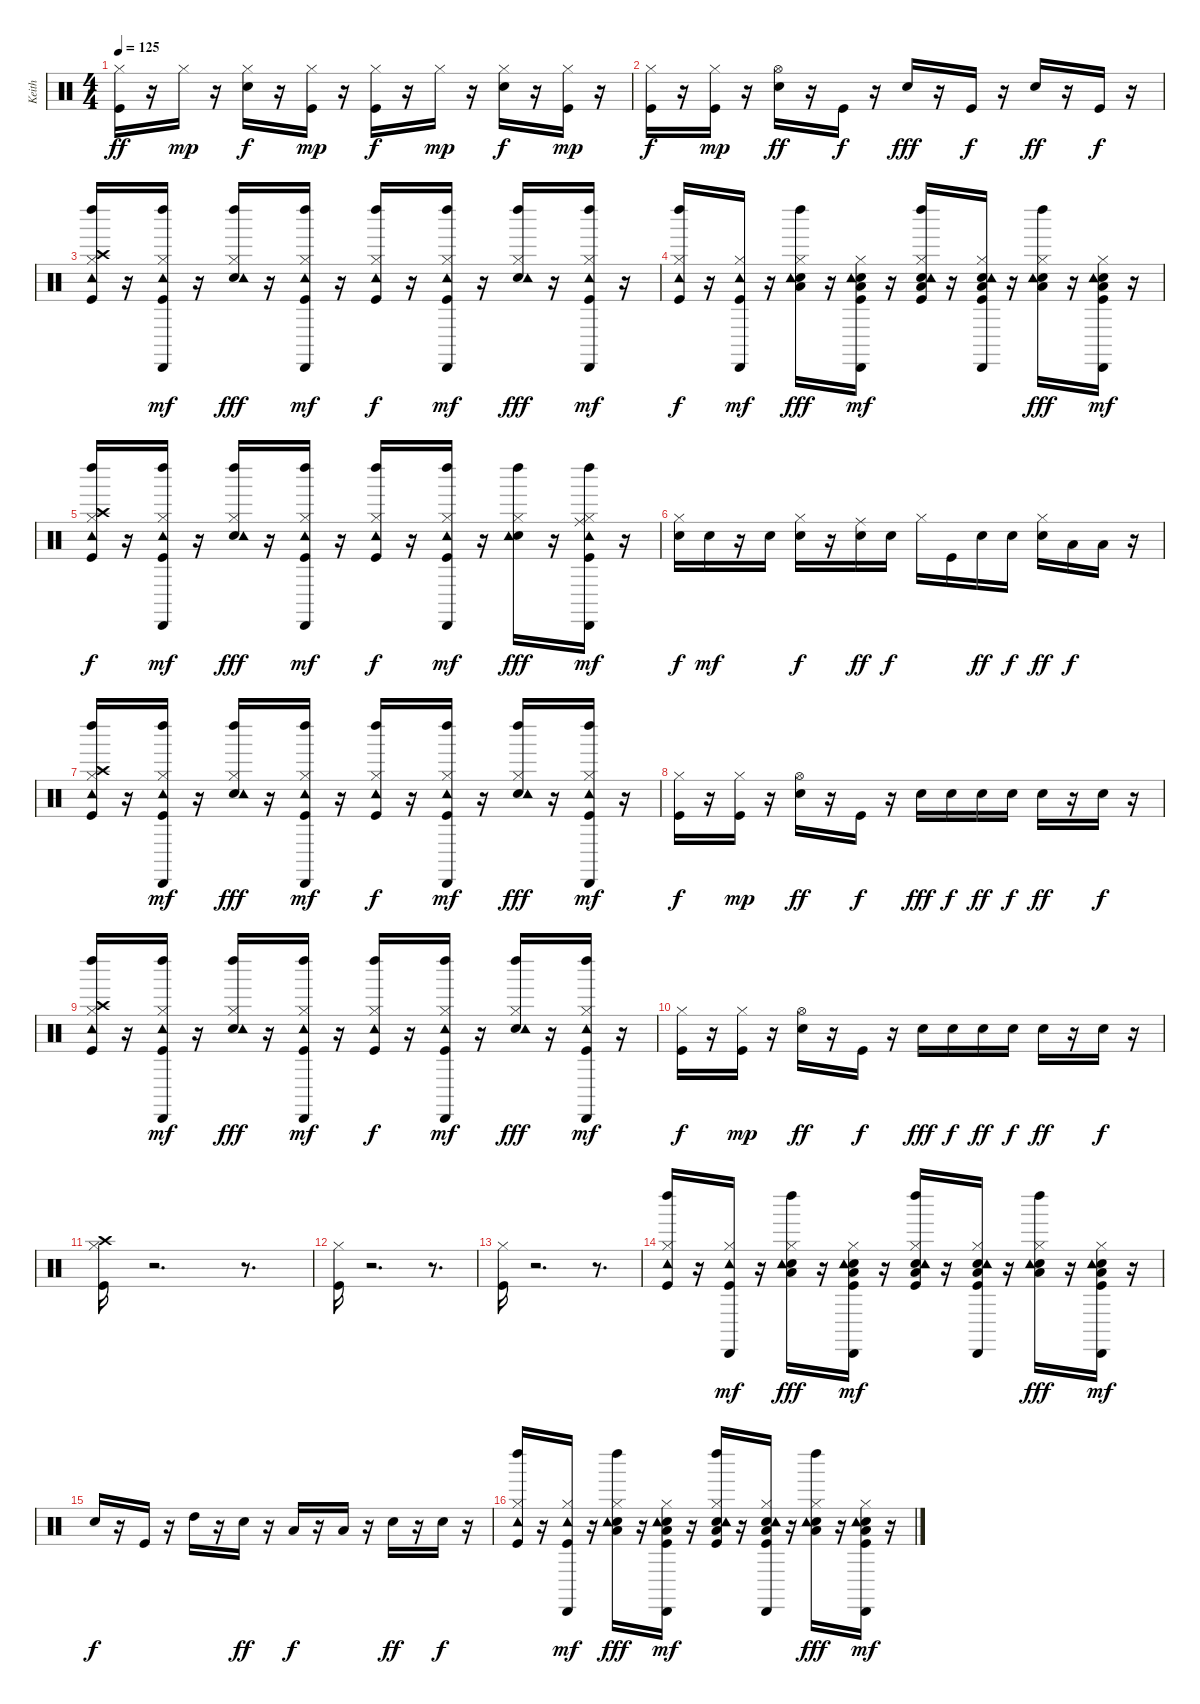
\track ("Keith" "Keith") {instrument percussion}
\staff {score}
\articulation defaults
\ts (4 4)
\tempo 125
\clef neutral
\ks c
("Kick (hit)" "Hi-Hat (closed)").16{dy ff} r.16 "Hi-Hat (closed)".16{dy mp} r.16 ("Snare (hit) 2" "Hi-Hat (closed)").16{dy f} r.16 ("Kick (hit)" "Hi-Hat (closed)").16{dy mp} r.16 ("Kick (hit)" "Hi-Hat (closed)").16{dy f} r.16 "Hi-Hat (closed)".16{dy mp} r.16 ("Snare (hit) 2" "Hi-Hat (closed)").16{dy f} r.16 ("Kick (hit)" "Hi-Hat (closed)").16{dy mp} r.16 |
("Kick (hit)" "Hi-Hat (closed)").16{dy f} r.16 ("Kick (hit)" "Hi-Hat (closed)").16{dy mp} r.16 ("Snare (hit) 2" "Hi-Hat (open)").16{dy ff} r.16 "Kick (hit)".16{dy f} r.16 "Snare (hit) 2".16{dy fff} r.16 "Kick (hit)".16{dy f} r.16 "Snare (hit) 2".16{dy ff} r.16 "Kick (hit)".16{dy f} r.16 |
("Kick (hit)" "Hi-Hat (closed)" "Crash high (hit)" "Tambourine (hit)" "Left Maraca (hit)").16 r.16 ("Kick (hit)" "Hi-Hat (closed)" "Tambourine (hit)" "Left Maraca (hit)" "Cabasa (hit)").16{dy mf} r.16 ("Snare (hit) 2" "Hi-Hat (closed)" "Tambourine (hit)" "Left Maraca (hit)").16{dy fff} r.16 ("Kick (hit)" "Hi-Hat (closed)" "Tambourine (hit)" "Left Maraca (hit)" "Cabasa (hit)").16{dy mf} r.16 ("Kick (hit)" "Hi-Hat (closed)" "Tambourine (hit)" "Left Maraca (hit)").16{dy f} r.16 ("Kick (hit)" "Hi-Hat (closed)" "Tambourine (hit)" "Left Maraca (hit)" "Cabasa (hit)").16{dy mf} r.16 ("Snare (hit) 2" "Hi-Hat (closed)" "Tambourine (hit)" "Left Maraca (hit)").16{dy fff} r.16 ("Kick (hit)" "Hi-Hat (closed)" "Tambourine (hit)" "Left Maraca (hit)" "Cabasa (hit)").16{dy mf} r.16 |
("Kick (hit)" "Hi-Hat (closed)" "Tambourine (hit)" "Left Maraca (hit)").16{dy f} r.16 ("Kick (hit)" "Hi-Hat (closed)" "Tambourine (hit)" "Cabasa (hit)").16{dy mf} r.16 ("Snare (hit) 2" "Hi-Hat (closed)" "Low Floor Tom (hit)" "Tambourine (hit)" "Left Maraca (hit)").16{dy fff} r.16 ("Kick (hit)" "Snare (hit) 2" "Hi-Hat (closed)" "Low Floor Tom (hit)" "Tambourine (hit)" "Cabasa (hit)").16{dy mf} r.16 ("Kick (hit)" "Snare (hit) 2" "Hi-Hat (closed)" "Low Floor Tom (hit)" "Tambourine (hit)" "Left Maraca (hit)").16 r.16 ("Kick (hit)" "Snare (hit) 2" "Hi-Hat (closed)" "Low Floor Tom (hit)" "Tambourine (hit)" "Cabasa (hit)").16 r.16 ("Snare (hit) 2" "Hi-Hat (closed)" "Low Floor Tom (hit)" "Tambourine (hit)" "Left Maraca (hit)").16{dy fff} r.16 ("Kick (hit)" "Snare (hit) 2" "Hi-Hat (closed)" "Low Floor Tom (hit)" "Tambourine (hit)" "Cabasa (hit)").16{dy mf} r.16 |
("Kick (hit)" "Hi-Hat (closed)" "Crash high (hit)" "Tambourine (hit)" "Left Maraca (hit)").16{dy f} r.16 ("Kick (hit)" "Hi-Hat (closed)" "Tambourine (hit)" "Left Maraca (hit)" "Cabasa (hit)").16{dy mf} r.16 ("Snare (hit) 2" "Hi-Hat (closed)" "Tambourine (hit)" "Left Maraca (hit)").16{dy fff} r.16 ("Kick (hit)" "Hi-Hat (closed)" "Tambourine (hit)" "Left Maraca (hit)" "Cabasa (hit)").16{dy mf} r.16 ("Kick (hit)" "Hi-Hat (closed)" "Tambourine (hit)" "Left Maraca (hit)").16{dy f} r.16 ("Kick (hit)" "Hi-Hat (closed)" "Tambourine (hit)" "Left Maraca (hit)" "Cabasa (hit)").16{dy mf} r.16 ("Snare (hit) 2" "Hi-Hat (closed)" "Tambourine (hit)" "Left Maraca (hit)").16{dy fff} r.16 ("Kick (hit)" "Hi-Hat (closed)" "Ride (middle)" "Tambourine (hit)" "Left Maraca (hit)" "Cabasa (hit)").16{dy mf} r.16 |
("Snare (hit) 2" "Hi-Hat (closed)").16{dy f} "Snare (hit) 2".16{dy mf} r.16 "Snare (hit) 2".16 ("Snare (hit) 2" "Hi-Hat (closed)").16{dy f} r.16 ("Snare (hit) 2" "Ride (middle)").16{dy ff} "Snare (hit) 2".16{dy f} "Hi-Hat (closed)".16 "Kick (hit)".16 "Snare (hit) 2".16{dy ff} "Snare (hit) 2".16{dy f} ("Snare (hit) 2" "Hi-Hat (closed)").16{dy ff} "Low Tom (hit)".16{dy f} "Low Floor Tom (hit)".16 r.16 |
("Kick (hit)" "Hi-Hat (closed)" "Crash high (hit)" "Tambourine (hit)" "Left Maraca (hit)").16 r.16 ("Kick (hit)" "Hi-Hat (closed)" "Tambourine (hit)" "Left Maraca (hit)" "Cabasa (hit)").16{dy mf} r.16 ("Snare (hit) 2" "Hi-Hat (closed)" "Tambourine (hit)" "Left Maraca (hit)").16{dy fff} r.16 ("Kick (hit)" "Hi-Hat (closed)" "Tambourine (hit)" "Left Maraca (hit)" "Cabasa (hit)").16{dy mf} r.16 ("Kick (hit)" "Hi-Hat (closed)" "Tambourine (hit)" "Left Maraca (hit)").16{dy f} r.16 ("Kick (hit)" "Hi-Hat (closed)" "Tambourine (hit)" "Left Maraca (hit)" "Cabasa (hit)").16{dy mf} r.16 ("Snare (hit) 2" "Hi-Hat (closed)" "Tambourine (hit)" "Left Maraca (hit)").16{dy fff} r.16 ("Kick (hit)" "Hi-Hat (closed)" "Tambourine (hit)" "Left Maraca (hit)" "Cabasa (hit)").16{dy mf} r.16 |
("Kick (hit)" "Hi-Hat (closed)").16{dy f} r.16 ("Kick (hit)" "Hi-Hat (closed)").16{dy mp} r.16 ("Snare (hit) 2" "Hi-Hat (open)").16{dy ff} r.16 "Kick (hit)".16{dy f} r.16 "Snare (hit) 2".16{dy fff} "Snare (hit) 2".16{dy f} "Snare (hit) 2".16{dy ff} "Snare (hit) 2".16{dy f} "Snare (hit) 2".16{dy ff} r.16 "Snare (hit) 2".16{dy f} r.16 |
("Kick (hit)" "Hi-Hat (closed)" "Crash high (hit)" "Tambourine (hit)" "Left Maraca (hit)").16 r.16 ("Kick (hit)" "Hi-Hat (closed)" "Tambourine (hit)" "Left Maraca (hit)" "Cabasa (hit)").16{dy mf} r.16 ("Snare (hit) 2" "Hi-Hat (closed)" "Tambourine (hit)" "Left Maraca (hit)").16{dy fff} r.16 ("Kick (hit)" "Hi-Hat (closed)" "Tambourine (hit)" "Left Maraca (hit)" "Cabasa (hit)").16{dy mf} r.16 ("Kick (hit)" "Hi-Hat (closed)" "Tambourine (hit)" "Left Maraca (hit)").16{dy f} r.16 ("Kick (hit)" "Hi-Hat (closed)" "Tambourine (hit)" "Left Maraca (hit)" "Cabasa (hit)").16{dy mf} r.16 ("Snare (hit) 2" "Hi-Hat (closed)" "Tambourine (hit)" "Left Maraca (hit)").16{dy fff} r.16 ("Kick (hit)" "Hi-Hat (closed)" "Tambourine (hit)" "Left Maraca (hit)" "Cabasa (hit)").16{dy mf} r.16 |
("Kick (hit)" "Hi-Hat (closed)").16{dy f} r.16 ("Kick (hit)" "Hi-Hat (closed)").16{dy mp} r.16 ("Snare (hit) 2" "Hi-Hat (open)").16{dy ff} r.16 "Kick (hit)".16{dy f} r.16 "Snare (hit) 2".16{dy fff} "Snare (hit) 2".16{dy f} "Snare (hit) 2".16{dy ff} "Snare (hit) 2".16{dy f} "Snare (hit) 2".16{dy ff} r.16 "Snare (hit) 2".16{dy f} r.16 |
("Kick (hit)" "Hi-Hat (closed)" "Crash high (hit)").16 r.2{d} r.8{d} |
("Kick (hit)" "Hi-Hat (closed)").16 r.2{d} r.8{d} |
("Kick (hit)" "Hi-Hat (closed)").16 r.2{d} r.8{d} |
("Kick (hit)" "Hi-Hat (closed)" "Tambourine (hit)" "Left Maraca (hit)").16 r.16 ("Kick (hit)" "Hi-Hat (closed)" "Tambourine (hit)" "Cabasa (hit)").16{dy mf} r.16 ("Snare (hit) 2" "Hi-Hat (closed)" "Low Floor Tom (hit)" "Tambourine (hit)" "Left Maraca (hit)").16{dy fff} r.16 ("Kick (hit)" "Snare (hit) 2" "Hi-Hat (closed)" "Low Floor Tom (hit)" "Tambourine (hit)" "Cabasa (hit)").16{dy mf} r.16 ("Kick (hit)" "Snare (hit) 2" "Hi-Hat (closed)" "Low Floor Tom (hit)" "Tambourine (hit)" "Left Maraca (hit)").16 r.16 ("Kick (hit)" "Snare (hit) 2" "Hi-Hat (closed)" "Low Floor Tom (hit)" "Tambourine (hit)" "Cabasa (hit)").16 r.16 ("Snare (hit) 2" "Hi-Hat (closed)" "Low Floor Tom (hit)" "Tambourine (hit)" "Left Maraca (hit)").16{dy fff} r.16 ("Kick (hit)" "Snare (hit) 2" "Hi-Hat (closed)" "Low Floor Tom (hit)" "Tambourine (hit)" "Cabasa (hit)").16{dy mf} r.16 |
"Snare (hit) 2".16{dy f} r.16 "Kick (hit)".16 r.16 "High Tom (hit)".16 r.16 "Snare (hit) 2".16{dy ff} r.16 "Low Tom (hit)".16{dy f} r.16 "Low Tom (hit)".16 r.16 "Snare (hit) 2".16{dy ff} r.16 "Snare (hit) 2".16{dy f} r.16 |
("Kick (hit)" "Hi-Hat (closed)" "Tambourine (hit)" "Left Maraca (hit)").16 r.16 ("Kick (hit)" "Hi-Hat (closed)" "Tambourine (hit)" "Cabasa (hit)").16{dy mf} r.16 ("Snare (hit) 2" "Hi-Hat (closed)" "Low Floor Tom (hit)" "Tambourine (hit)" "Left Maraca (hit)").16{dy fff} r.16 ("Kick (hit)" "Snare (hit) 2" "Hi-Hat (closed)" "Low Floor Tom (hit)" "Tambourine (hit)" "Cabasa (hit)").16{dy mf} r.16 ("Kick (hit)" "Snare (hit) 2" "Hi-Hat (closed)" "Low Floor Tom (hit)" "Tambourine (hit)" "Left Maraca (hit)").16 r.16 ("Kick (hit)" "Snare (hit) 2" "Hi-Hat (closed)" "Low Floor Tom (hit)" "Tambourine (hit)" "Cabasa (hit)").16 r.16 ("Snare (hit) 2" "Hi-Hat (closed)" "Low Floor Tom (hit)" "Tambourine (hit)" "Left Maraca (hit)").16{dy fff} r.16 ("Kick (hit)" "Snare (hit) 2" "Hi-Hat (closed)" "Low Floor Tom (hit)" "Tambourine (hit)" "Cabasa (hit)").16{dy mf} r.16
